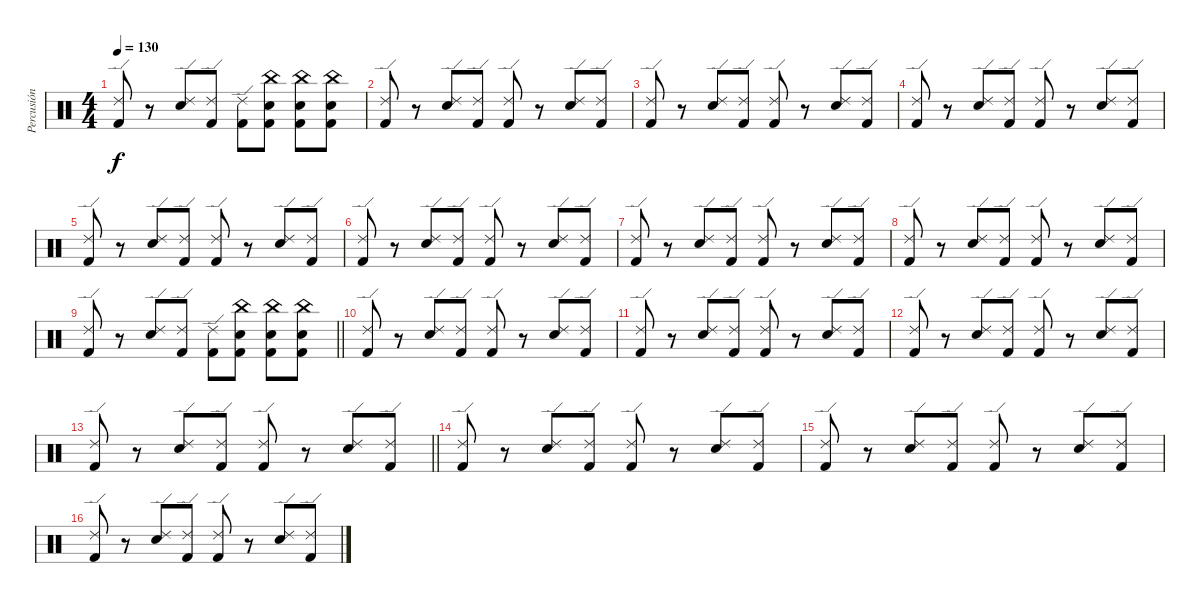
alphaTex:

\track ("Percusión" "Percusión") {instrument percussion}
\staff {score}
\articulation defaults
\ts (4 4)
\tempo 130
\clef neutral
\ks c
("Kick (hit) 2" "Ride (edge) 2").8{dy f} r.8 ("Snare (hit) 2" "Ride (edge) 2").8 ("Kick (hit) 2" "Ride (edge) 2").8 ("Kick (hit) 2" "Ride (edge) 2").8 ("Kick (hit) 2" "Snare (hit) 2" "China (hit)").8 ("Kick (hit) 2" "Snare (hit) 2" "China (hit)").8 ("Kick (hit) 2" "Snare (hit) 2" "China (hit)").8 |
("Kick (hit) 2" "Ride (edge) 2").8 r.8 ("Snare (hit) 2" "Ride (edge) 2").8 ("Kick (hit) 2" "Ride (edge) 2").8 ("Kick (hit) 2" "Ride (edge) 2").8 r.8 ("Snare (hit) 2" "Ride (edge) 2").8 ("Kick (hit) 2" "Ride (edge) 2").8 |
("Kick (hit) 2" "Ride (edge) 2").8 r.8 ("Snare (hit) 2" "Ride (edge) 2").8 ("Kick (hit) 2" "Ride (edge) 2").8 ("Kick (hit) 2" "Ride (edge) 2").8 r.8 ("Snare (hit) 2" "Ride (edge) 2").8 ("Kick (hit) 2" "Ride (edge) 2").8 |
("Kick (hit) 2" "Ride (edge) 2").8 r.8 ("Snare (hit) 2" "Ride (edge) 2").8 ("Kick (hit) 2" "Ride (edge) 2").8 ("Kick (hit) 2" "Ride (edge) 2").8 r.8 ("Snare (hit) 2" "Ride (edge) 2").8 ("Kick (hit) 2" "Ride (edge) 2").8 |
("Kick (hit) 2" "Ride (edge) 2").8 r.8 ("Snare (hit) 2" "Ride (edge) 2").8 ("Kick (hit) 2" "Ride (edge) 2").8 ("Kick (hit) 2" "Ride (edge) 2").8 r.8 ("Snare (hit) 2" "Ride (edge) 2").8 ("Kick (hit) 2" "Ride (edge) 2").8 |
("Kick (hit) 2" "Ride (edge) 2").8 r.8 ("Snare (hit) 2" "Ride (edge) 2").8 ("Kick (hit) 2" "Ride (edge) 2").8 ("Kick (hit) 2" "Ride (edge) 2").8 r.8 ("Snare (hit) 2" "Ride (edge) 2").8 ("Kick (hit) 2" "Ride (edge) 2").8 |
("Kick (hit) 2" "Ride (edge) 2").8 r.8 ("Snare (hit) 2" "Ride (edge) 2").8 ("Kick (hit) 2" "Ride (edge) 2").8 ("Kick (hit) 2" "Ride (edge) 2").8 r.8 ("Snare (hit) 2" "Ride (edge) 2").8 ("Kick (hit) 2" "Ride (edge) 2").8 |
("Kick (hit) 2" "Ride (edge) 2").8 r.8 ("Snare (hit) 2" "Ride (edge) 2").8 ("Kick (hit) 2" "Ride (edge) 2").8 ("Kick (hit) 2" "Ride (edge) 2").8 r.8 ("Snare (hit) 2" "Ride (edge) 2").8 ("Kick (hit) 2" "Ride (edge) 2").8 |
\barLineRight lightlight
("Kick (hit) 2" "Ride (edge) 2").8 r.8 ("Snare (hit) 2" "Ride (edge) 2").8 ("Kick (hit) 2" "Ride (edge) 2").8 ("Kick (hit) 2" "Ride (edge) 2").8 ("Kick (hit) 2" "Snare (hit) 2" "China (hit)").8 ("Kick (hit) 2" "Snare (hit) 2" "China (hit)").8 ("Kick (hit) 2" "Snare (hit) 2" "China (hit)").8 |
("Kick (hit) 2" "Ride (edge) 2").8 r.8 ("Snare (hit) 2" "Ride (edge) 2").8 ("Kick (hit) 2" "Ride (edge) 2").8 ("Kick (hit) 2" "Ride (edge) 2").8 r.8 ("Snare (hit) 2" "Ride (edge) 2").8 ("Kick (hit) 2" "Ride (edge) 2").8 |
("Kick (hit) 2" "Ride (edge) 2").8 r.8 ("Snare (hit) 2" "Ride (edge) 2").8 ("Kick (hit) 2" "Ride (edge) 2").8 ("Kick (hit) 2" "Ride (edge) 2").8 r.8 ("Snare (hit) 2" "Ride (edge) 2").8 ("Kick (hit) 2" "Ride (edge) 2").8 |
("Kick (hit) 2" "Ride (edge) 2").8 r.8 ("Snare (hit) 2" "Ride (edge) 2").8 ("Kick (hit) 2" "Ride (edge) 2").8 ("Kick (hit) 2" "Ride (edge) 2").8 r.8 ("Snare (hit) 2" "Ride (edge) 2").8 ("Kick (hit) 2" "Ride (edge) 2").8 |
\barLineRight lightlight
("Kick (hit) 2" "Ride (edge) 2").8 r.8 ("Snare (hit) 2" "Ride (edge) 2").8 ("Kick (hit) 2" "Ride (edge) 2").8 ("Kick (hit) 2" "Ride (edge) 2").8 r.8 ("Snare (hit) 2" "Ride (edge) 2").8 ("Kick (hit) 2" "Ride (edge) 2").8 |
("Kick (hit) 2" "Ride (edge) 2").8 r.8 ("Snare (hit) 2" "Ride (edge) 2").8 ("Kick (hit) 2" "Ride (edge) 2").8 ("Kick (hit) 2" "Ride (edge) 2").8 r.8 ("Snare (hit) 2" "Ride (edge) 2").8 ("Kick (hit) 2" "Ride (edge) 2").8 |
("Kick (hit) 2" "Ride (edge) 2").8 r.8 ("Snare (hit) 2" "Ride (edge) 2").8 ("Kick (hit) 2" "Ride (edge) 2").8 ("Kick (hit) 2" "Ride (edge) 2").8 r.8 ("Snare (hit) 2" "Ride (edge) 2").8 ("Kick (hit) 2" "Ride (edge) 2").8 |
("Kick (hit) 2" "Ride (edge) 2").8 r.8 ("Snare (hit) 2" "Ride (edge) 2").8 ("Kick (hit) 2" "Ride (edge) 2").8 ("Kick (hit) 2" "Ride (edge) 2").8 r.8 ("Snare (hit) 2" "Ride (edge) 2").8 ("Kick (hit) 2" "Ride (edge) 2").8
